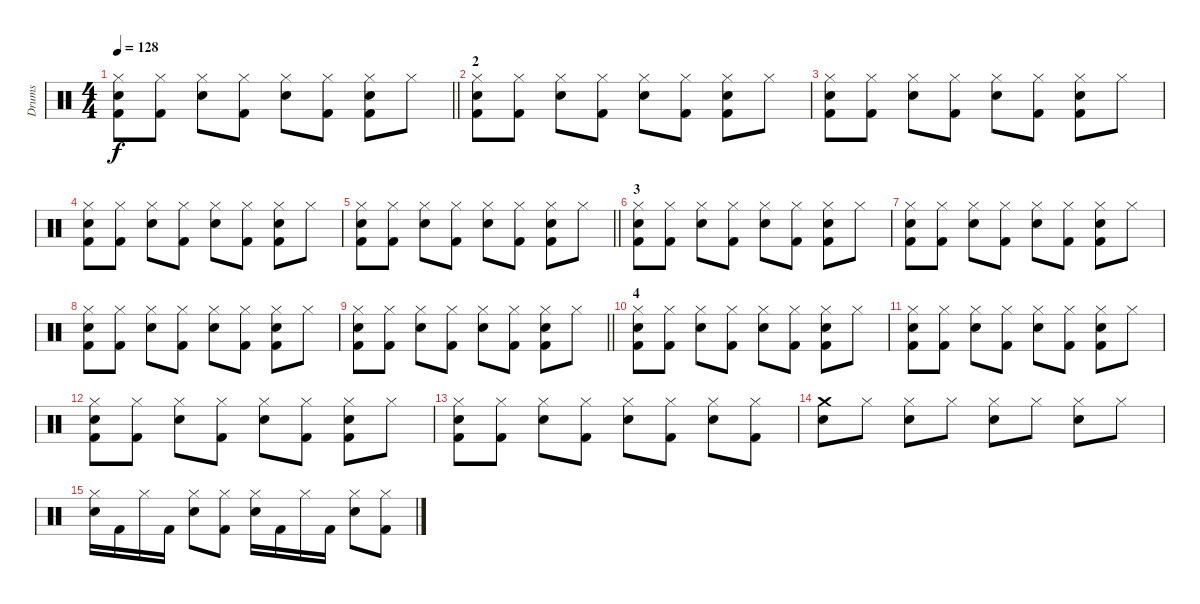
\track ("Drums" "Drums") {instrument percussion}
\staff {score}
\articulation defaults
\ts (4 4)
\tempo 128
\clef neutral
\barLineRight lightlight
\ks c
("Kick (hit) 2" "Snare (hit) 2" "Hi-Hat (closed)").8{dy f} ("Hi-Hat (closed)" "Kick (hit) 2").8 ("Snare (hit) 2" "Hi-Hat (closed)").8 ("Kick (hit) 2" "Hi-Hat (closed)").8 ("Hi-Hat (closed)" "Snare (hit) 2").8 ("Kick (hit) 2" "Hi-Hat (closed)").8 ("Kick (hit) 2" "Hi-Hat (closed)" "Snare (hit) 2").8 "Hi-Hat (closed)".8 |
\section ("" "2")
("Kick (hit) 2" "Snare (hit) 2" "Hi-Hat (closed)").8 ("Hi-Hat (closed)" "Kick (hit) 2").8 ("Snare (hit) 2" "Hi-Hat (closed)").8 ("Kick (hit) 2" "Hi-Hat (closed)").8 ("Hi-Hat (closed)" "Snare (hit) 2").8 ("Kick (hit) 2" "Hi-Hat (closed)").8 ("Kick (hit) 2" "Hi-Hat (closed)" "Snare (hit) 2").8 "Hi-Hat (closed)".8 |
("Kick (hit) 2" "Snare (hit) 2" "Hi-Hat (closed)").8 ("Hi-Hat (closed)" "Kick (hit) 2").8 ("Snare (hit) 2" "Hi-Hat (closed)").8 ("Kick (hit) 2" "Hi-Hat (closed)").8 ("Hi-Hat (closed)" "Snare (hit) 2").8 ("Kick (hit) 2" "Hi-Hat (closed)").8 ("Kick (hit) 2" "Hi-Hat (closed)" "Snare (hit) 2").8 "Hi-Hat (closed)".8 |
("Kick (hit) 2" "Snare (hit) 2" "Hi-Hat (closed)").8 ("Hi-Hat (closed)" "Kick (hit) 2").8 ("Snare (hit) 2" "Hi-Hat (closed)").8 ("Kick (hit) 2" "Hi-Hat (closed)").8 ("Hi-Hat (closed)" "Snare (hit) 2").8 ("Kick (hit) 2" "Hi-Hat (closed)").8 ("Kick (hit) 2" "Hi-Hat (closed)" "Snare (hit) 2").8 "Hi-Hat (closed)".8 |
\barLineRight lightlight
("Kick (hit) 2" "Snare (hit) 2" "Hi-Hat (closed)").8 ("Hi-Hat (closed)" "Kick (hit) 2").8 ("Snare (hit) 2" "Hi-Hat (closed)").8 ("Kick (hit) 2" "Hi-Hat (closed)").8 ("Hi-Hat (closed)" "Snare (hit) 2").8 ("Kick (hit) 2" "Hi-Hat (closed)").8 ("Kick (hit) 2" "Hi-Hat (closed)" "Snare (hit) 2").8 "Hi-Hat (closed)".8 |
\section ("" "3")
("Kick (hit) 2" "Snare (hit) 2" "Hi-Hat (closed)").8 ("Hi-Hat (closed)" "Kick (hit) 2").8 ("Snare (hit) 2" "Hi-Hat (closed)").8 ("Kick (hit) 2" "Hi-Hat (closed)").8 ("Hi-Hat (closed)" "Snare (hit) 2").8 ("Kick (hit) 2" "Hi-Hat (closed)").8 ("Kick (hit) 2" "Hi-Hat (closed)" "Snare (hit) 2").8 "Hi-Hat (closed)".8 |
("Kick (hit) 2" "Snare (hit) 2" "Hi-Hat (closed)").8 ("Hi-Hat (closed)" "Kick (hit) 2").8 ("Snare (hit) 2" "Hi-Hat (closed)").8 ("Kick (hit) 2" "Hi-Hat (closed)").8 ("Hi-Hat (closed)" "Snare (hit) 2").8 ("Kick (hit) 2" "Hi-Hat (closed)").8 ("Kick (hit) 2" "Hi-Hat (closed)" "Snare (hit) 2").8 "Hi-Hat (closed)".8 |
("Kick (hit) 2" "Snare (hit) 2" "Hi-Hat (closed)").8 ("Hi-Hat (closed)" "Kick (hit) 2").8 ("Snare (hit) 2" "Hi-Hat (closed)").8 ("Kick (hit) 2" "Hi-Hat (closed)").8 ("Hi-Hat (closed)" "Snare (hit) 2").8 ("Kick (hit) 2" "Hi-Hat (closed)").8 ("Kick (hit) 2" "Hi-Hat (closed)" "Snare (hit) 2").8 "Hi-Hat (closed)".8 |
\barLineRight lightlight
("Kick (hit) 2" "Snare (hit) 2" "Hi-Hat (closed)").8 ("Hi-Hat (closed)" "Kick (hit) 2").8 ("Snare (hit) 2" "Hi-Hat (closed)").8 ("Kick (hit) 2" "Hi-Hat (closed)").8 ("Hi-Hat (closed)" "Snare (hit) 2").8 ("Kick (hit) 2" "Hi-Hat (closed)").8 ("Kick (hit) 2" "Hi-Hat (closed)" "Snare (hit) 2").8 "Hi-Hat (closed)".8 |
\section ("" "4")
("Kick (hit) 2" "Snare (hit) 2" "Hi-Hat (closed)").8 ("Hi-Hat (closed)" "Kick (hit) 2").8 ("Snare (hit) 2" "Hi-Hat (closed)").8 ("Kick (hit) 2" "Hi-Hat (closed)").8 ("Hi-Hat (closed)" "Snare (hit) 2").8 ("Kick (hit) 2" "Hi-Hat (closed)").8 ("Kick (hit) 2" "Hi-Hat (closed)" "Snare (hit) 2").8 "Hi-Hat (closed)".8 |
("Kick (hit) 2" "Snare (hit) 2" "Hi-Hat (closed)").8 ("Hi-Hat (closed)" "Kick (hit) 2").8 ("Snare (hit) 2" "Hi-Hat (closed)").8 ("Kick (hit) 2" "Hi-Hat (closed)").8 ("Hi-Hat (closed)" "Snare (hit) 2").8 ("Kick (hit) 2" "Hi-Hat (closed)").8 ("Kick (hit) 2" "Hi-Hat (closed)" "Snare (hit) 2").8 "Hi-Hat (closed)".8 |
("Kick (hit) 2" "Snare (hit) 2" "Hi-Hat (closed)").8 ("Hi-Hat (closed)" "Kick (hit) 2").8 ("Snare (hit) 2" "Hi-Hat (closed)").8 ("Kick (hit) 2" "Hi-Hat (closed)").8 ("Hi-Hat (closed)" "Snare (hit) 2").8 ("Kick (hit) 2" "Hi-Hat (closed)").8 ("Kick (hit) 2" "Hi-Hat (closed)" "Snare (hit) 2").8 "Hi-Hat (closed)".8 |
("Kick (hit) 2" "Snare (hit) 2" "Hi-Hat (closed)").8 ("Hi-Hat (closed)" "Kick (hit) 2").8 ("Snare (hit) 2" "Hi-Hat (closed)").8 ("Kick (hit) 2" "Hi-Hat (closed)").8 ("Hi-Hat (closed)" "Snare (hit) 2").8 ("Kick (hit) 2" "Hi-Hat (closed)").8 ("Hi-Hat (closed)" "Snare (hit) 2").8 ("Kick (hit) 2" "Hi-Hat (closed)").8 |
("Crash medium (hit)" "Snare (hit) 2").8 "Hi-Hat (closed)".8 ("Snare (hit) 2" "Hi-Hat (closed)").8 "Hi-Hat (closed)".8 ("Snare (hit) 2" "Hi-Hat (closed)").8 "Hi-Hat (closed)".8 ("Snare (hit) 2" "Hi-Hat (closed)").8 "Hi-Hat (closed)".8 |
("Snare (hit) 2" "Hi-Hat (closed)").16 "Kick (hit) 2".16 "Hi-Hat (closed)".16 "Kick (hit) 2".16 ("Snare (hit) 2" "Hi-Hat (closed)").8 ("Kick (hit) 2" "Hi-Hat (closed)").8 ("Snare (hit) 2" "Hi-Hat (closed)").16 "Kick (hit) 2".16 "Hi-Hat (closed)".16 "Kick (hit) 2".16 ("Snare (hit) 2" "Hi-Hat (closed)").8 ("Kick (hit) 2" "Hi-Hat (closed)").8
